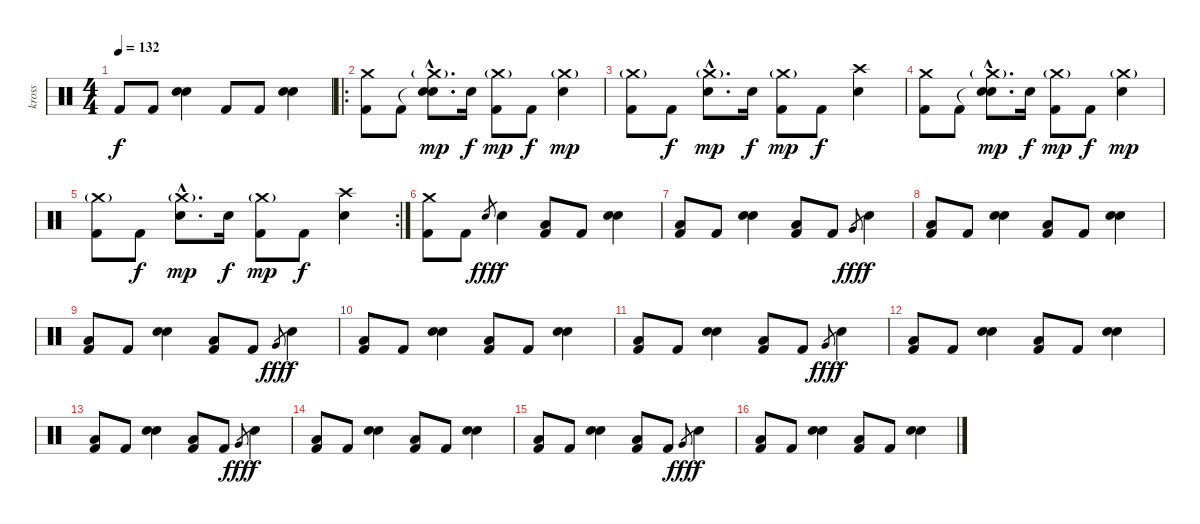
\track ("kross" "kross") {instrument percussion}
\staff {score}
\articulation defaults
\ts (4 4)
\tempo 132
\clef neutral
\ks c "Kick (hit) 2".8{dy f} "Kick (hit) 2".8
("Electric Snare (hit)" "Electric Snare (hit)").4 "Kick (hit) 2".8 "Kick (hit) 2".8 ("Electric Snare (hit)" "Electric Snare (hit)").4 |
\ro
("Crash medium (hit)" "Kick (hit) 2").8 "Kick (hit) 2".8 ("Snare (hit)"{hac t} "Crash medium (hit)"{g hac} "Electric Snare (hit)"{hac}).8{d dy mp} "Electric Snare (hit)".16{dy f} ("Crash medium (hit)"{g} "Kick (hit) 2").8{dy mp} "Kick (hit) 2".8{dy f} ("Crash medium (hit)"{g} "Electric Snare (hit)").4{dy mp} |
("Crash medium (hit)"{g} "Kick (hit) 2").8 "Kick (hit) 2".8{dy f} ("Crash medium (hit)"{g hac} "Electric Snare (hit)"{hac}).8{d dy mp} "Electric Snare (hit)".16{dy f} ("Crash medium (hit)"{g} "Kick (hit) 2").8{dy mp} "Kick (hit) 2".8{dy f} ("Crash high (hit)" "Electric Snare (hit)").4 |
("Crash medium (hit)" "Kick (hit) 2").8 "Kick (hit) 2".8 ("Snare (hit)"{hac t} "Crash medium (hit)"{g hac} "Electric Snare (hit)"{hac}).8{d dy mp} "Electric Snare (hit)".16{dy f} ("Crash medium (hit)"{g} "Kick (hit) 2").8{dy mp} "Kick (hit) 2".8{dy f} ("Crash medium (hit)"{g} "Electric Snare (hit)").4{dy mp} |
\rc 2
("Crash medium (hit)"{g} "Kick (hit) 2").8 "Kick (hit) 2".8{dy f} ("Crash medium (hit)"{g hac} "Electric Snare (hit)"{hac}).8{d dy mp} "Electric Snare (hit)".16{dy f} ("Crash medium (hit)"{g} "Kick (hit) 2").8{dy mp} "Kick (hit) 2".8{dy f} ("Crash high (hit)" "Electric Snare (hit)").4 |
("Crash medium (hit)" "Kick (hit) 2").8 "Kick (hit) 2".8 "Electric Snare (hit)".8{gr dy fff} "Electric Snare (hit)".4{dy f} ("Low Floor Tom (hit)" "Kick (hit) 2").8 "Kick (hit) 2".8 ("Electric Snare (hit)" "Electric Snare (hit)").4 |
("Low Floor Tom (hit)" "Kick (hit) 2").8 "Kick (hit) 2".8 ("Electric Snare (hit)" "Electric Snare (hit)").4 ("Low Floor Tom (hit)" "Kick (hit) 2").8 "Kick (hit) 2".8 "Very Low Tom (hit)".8{gr dy fff} "Electric Snare (hit)".4{dy f} |
("Low Floor Tom (hit)" "Kick (hit) 2").8 "Kick (hit) 2".8 ("Electric Snare (hit)" "Electric Snare (hit)").4 ("Low Floor Tom (hit)" "Kick (hit) 2").8 "Kick (hit) 2".8 ("Electric Snare (hit)" "Electric Snare (hit)").4 |
("Low Floor Tom (hit)" "Kick (hit) 2").8 "Kick (hit) 2".8 ("Electric Snare (hit)" "Electric Snare (hit)").4 ("Low Floor Tom (hit)" "Kick (hit) 2").8 "Kick (hit) 2".8 "Very Low Tom (hit)".8{gr dy fff} "Electric Snare (hit)".4{dy f} |
("Low Floor Tom (hit)" "Kick (hit) 2").8 "Kick (hit) 2".8 ("Electric Snare (hit)" "Electric Snare (hit)").4 ("Low Floor Tom (hit)" "Kick (hit) 2").8 "Kick (hit) 2".8 ("Electric Snare (hit)" "Electric Snare (hit)").4 |
("Low Floor Tom (hit)" "Kick (hit) 2").8 "Kick (hit) 2".8 ("Electric Snare (hit)" "Electric Snare (hit)").4 ("Low Floor Tom (hit)" "Kick (hit) 2").8 "Kick (hit) 2".8 "Very Low Tom (hit)".8{gr dy fff} "Electric Snare (hit)".4{dy f} |
("Low Floor Tom (hit)" "Kick (hit) 2").8 "Kick (hit) 2".8 ("Electric Snare (hit)" "Electric Snare (hit)").4 ("Low Floor Tom (hit)" "Kick (hit) 2").8 "Kick (hit) 2".8 ("Electric Snare (hit)" "Electric Snare (hit)").4 |
("Low Floor Tom (hit)" "Kick (hit) 2").8 "Kick (hit) 2".8 ("Electric Snare (hit)" "Electric Snare (hit)").4 ("Low Floor Tom (hit)" "Kick (hit) 2").8 "Kick (hit) 2".8 "Very Low Tom (hit)".8{gr dy fff} "Electric Snare (hit)".4{dy f} |
("Low Floor Tom (hit)" "Kick (hit) 2").8 "Kick (hit) 2".8 ("Electric Snare (hit)" "Electric Snare (hit)").4 ("Low Floor Tom (hit)" "Kick (hit) 2").8 "Kick (hit) 2".8 ("Electric Snare (hit)" "Electric Snare (hit)").4 |
("Low Floor Tom (hit)" "Kick (hit) 2").8 "Kick (hit) 2".8 ("Electric Snare (hit)" "Electric Snare (hit)").4 ("Low Floor Tom (hit)" "Kick (hit) 2").8 "Kick (hit) 2".8 "Very Low Tom (hit)".8{gr dy fff} "Electric Snare (hit)".4{dy f} |
("Low Floor Tom (hit)" "Kick (hit) 2").8 "Kick (hit) 2".8 ("Electric Snare (hit)" "Electric Snare (hit)").4 ("Low Floor Tom (hit)" "Kick (hit) 2").8 "Kick (hit) 2".8 ("Electric Snare (hit)" "Electric Snare (hit)").4
